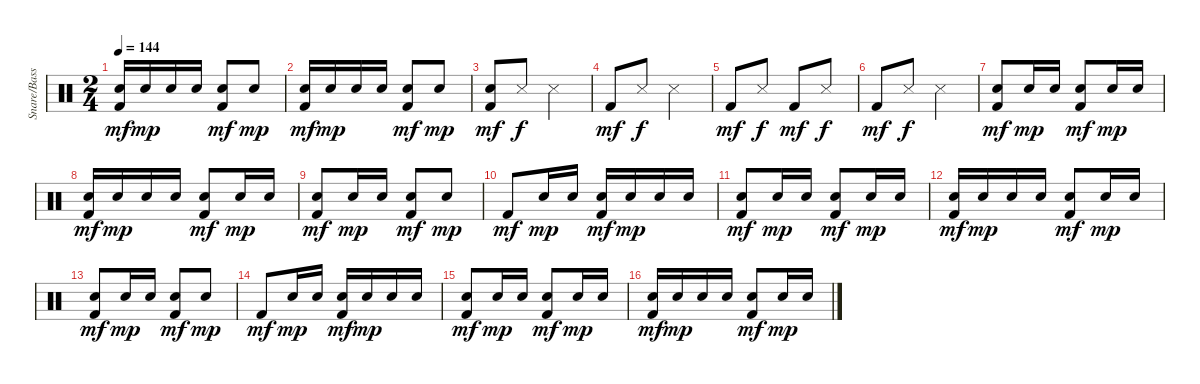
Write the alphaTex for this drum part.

\track ("Snare/Bass Dr       " "Snare/Bass") {instrument percussion}
\staff {score}
\articulation defaults
\ts (2 4)
\tempo 144
\clef neutral
\ks c
("Snare (hit) 2" "Kick (hit) 2").16{dy mf} "Snare (hit) 2".16{dy mp} "Snare (hit) 2".16 "Snare (hit) 2".16 ("Snare (hit) 2" "Kick (hit) 2").8{dy mf} "Snare (hit) 2".8{dy mp} |
("Snare (hit) 2" "Kick (hit) 2").16{dy mf} "Snare (hit) 2".16{dy mp} "Snare (hit) 2".16 "Snare (hit) 2".16 ("Snare (hit) 2" "Kick (hit) 2").8{dy mf} "Snare (hit) 2".8{dy mp} |
("Snare (hit) 2" "Kick (hit) 2").8{dy mf} "Snare (side stick) 3".8{dy f} "Snare (side stick) 3".4 |
"Kick (hit) 2".8{dy mf} "Snare (side stick) 3".8{dy f} "Snare (side stick) 3".4 |
"Kick (hit) 2".8{dy mf} "Snare (side stick) 3".8{dy f} "Kick (hit) 2".8{dy mf} "Snare (side stick) 3".8{dy f} |
"Kick (hit) 2".8{dy mf} "Snare (side stick) 3".8{dy f} "Snare (side stick) 3".4 |
("Snare (hit) 2" "Kick (hit) 2").8{dy mf} "Snare (hit) 2".16{dy mp} "Snare (hit) 2".16 ("Snare (hit) 2" "Kick (hit) 2").8{dy mf} "Snare (hit) 2".16{dy mp} "Snare (hit) 2".16 |
("Snare (hit) 2" "Kick (hit) 2").16{dy mf} "Snare (hit) 2".16{dy mp} "Snare (hit) 2".16 "Snare (hit) 2".16 ("Snare (hit) 2" "Kick (hit) 2").8{dy mf} "Snare (hit) 2".16{dy mp} "Snare (hit) 2".16 |
("Snare (hit) 2" "Kick (hit) 2").8{dy mf} "Snare (hit) 2".16{dy mp} "Snare (hit) 2".16 ("Snare (hit) 2" "Kick (hit) 2").8{dy mf} "Snare (hit) 2".8{dy mp} |
"Kick (hit) 2".8{dy mf} "Snare (hit) 2".16{dy mp} "Snare (hit) 2".16 ("Snare (hit) 2" "Kick (hit) 2").16{dy mf} "Snare (hit) 2".16{dy mp} "Snare (hit) 2".16 "Snare (hit) 2".16 |
("Snare (hit) 2" "Kick (hit) 2").8{dy mf} "Snare (hit) 2".16{dy mp} "Snare (hit) 2".16 ("Snare (hit) 2" "Kick (hit) 2").8{dy mf} "Snare (hit) 2".16{dy mp} "Snare (hit) 2".16 |
("Snare (hit) 2" "Kick (hit) 2").16{dy mf} "Snare (hit) 2".16{dy mp} "Snare (hit) 2".16 "Snare (hit) 2".16 ("Snare (hit) 2" "Kick (hit) 2").8{dy mf} "Snare (hit) 2".16{dy mp} "Snare (hit) 2".16 |
("Snare (hit) 2" "Kick (hit) 2").8{dy mf} "Snare (hit) 2".16{dy mp} "Snare (hit) 2".16 ("Snare (hit) 2" "Kick (hit) 2").8{dy mf} "Snare (hit) 2".8{dy mp} |
"Kick (hit) 2".8{dy mf} "Snare (hit) 2".16{dy mp} "Snare (hit) 2".16 ("Snare (hit) 2" "Kick (hit) 2").16{dy mf} "Snare (hit) 2".16{dy mp} "Snare (hit) 2".16 "Snare (hit) 2".16 |
("Snare (hit) 2" "Kick (hit) 2").8{dy mf} "Snare (hit) 2".16{dy mp} "Snare (hit) 2".16 ("Snare (hit) 2" "Kick (hit) 2").8{dy mf} "Snare (hit) 2".16{dy mp} "Snare (hit) 2".16 |
("Snare (hit) 2" "Kick (hit) 2").16{dy mf} "Snare (hit) 2".16{dy mp} "Snare (hit) 2".16 "Snare (hit) 2".16 ("Snare (hit) 2" "Kick (hit) 2").8{dy mf} "Snare (hit) 2".16{dy mp} "Snare (hit) 2".16
